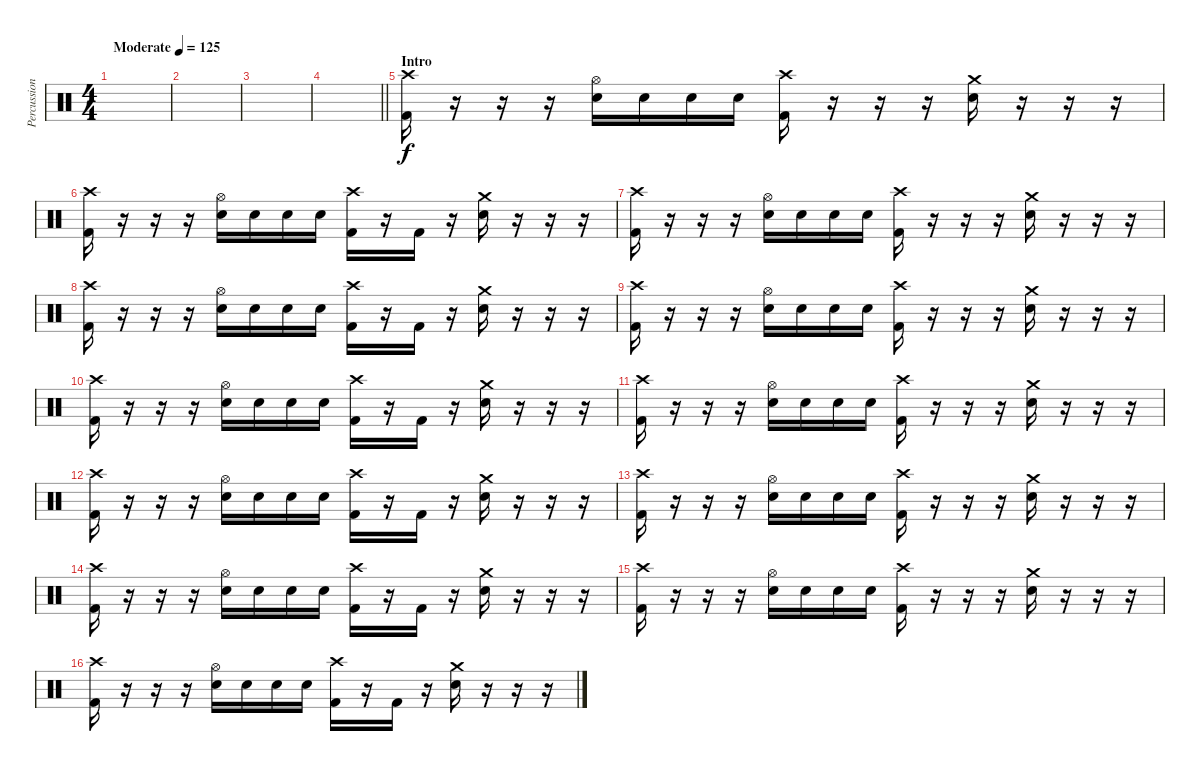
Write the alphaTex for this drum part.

\track ("Percussion" "Percussion") {instrument percussion}
\staff {score}
\articulation defaults
\ts (4 4)
\tempo (125 "Moderate")
\clef neutral
\ks c
|
|
|
\barLineRight lightlight
|
\section ("" "Intro")
("Crash high (hit)" "Kick (hit) 2").16 r.16 r.16 r.16 ("Hi-Hat (open)" "Snare (hit) 2").16 "Snare (hit) 2".16 "Snare (hit) 2".16 "Snare (hit) 2".16 ("Crash high (hit)" "Kick (hit) 2").16 r.16 r.16 r.16 ("Crash medium (hit)" "Snare (hit) 2").16 r.16 r.16 r.16 |
("Crash high (hit)" "Kick (hit) 2").16 r.16 r.16 r.16 ("Hi-Hat (open)" "Snare (hit) 2").16 "Snare (hit) 2".16 "Snare (hit) 2".16 "Snare (hit) 2".16 ("Crash high (hit)" "Kick (hit) 2").16 r.16 "Kick (hit) 2".16 r.16 ("Crash medium (hit)" "Snare (hit) 2").16 r.16 r.16 r.16 |
("Crash high (hit)" "Kick (hit) 2").16 r.16 r.16 r.16 ("Hi-Hat (open)" "Snare (hit) 2").16 "Snare (hit) 2".16 "Snare (hit) 2".16 "Snare (hit) 2".16 ("Crash high (hit)" "Kick (hit) 2").16 r.16 r.16 r.16 ("Crash medium (hit)" "Snare (hit) 2").16 r.16 r.16 r.16 |
("Crash high (hit)" "Kick (hit) 2").16 r.16 r.16 r.16 ("Hi-Hat (open)" "Snare (hit) 2").16 "Snare (hit) 2".16 "Snare (hit) 2".16 "Snare (hit) 2".16 ("Crash high (hit)" "Kick (hit) 2").16 r.16 "Kick (hit) 2".16 r.16 ("Crash medium (hit)" "Snare (hit) 2").16 r.16 r.16 r.16 |
("Crash high (hit)" "Kick (hit) 2").16 r.16 r.16 r.16 ("Hi-Hat (open)" "Snare (hit) 2").16 "Snare (hit) 2".16 "Snare (hit) 2".16 "Snare (hit) 2".16 ("Crash high (hit)" "Kick (hit) 2").16 r.16 r.16 r.16 ("Crash medium (hit)" "Snare (hit) 2").16 r.16 r.16 r.16 |
("Crash high (hit)" "Kick (hit) 2").16 r.16 r.16 r.16 ("Hi-Hat (open)" "Snare (hit) 2").16 "Snare (hit) 2".16 "Snare (hit) 2".16 "Snare (hit) 2".16 ("Crash high (hit)" "Kick (hit) 2").16 r.16 "Kick (hit) 2".16 r.16 ("Crash medium (hit)" "Snare (hit) 2").16 r.16 r.16 r.16 |
("Crash high (hit)" "Kick (hit) 2").16 r.16 r.16 r.16 ("Hi-Hat (open)" "Snare (hit) 2").16 "Snare (hit) 2".16 "Snare (hit) 2".16 "Snare (hit) 2".16 ("Crash high (hit)" "Kick (hit) 2").16 r.16 r.16 r.16 ("Crash medium (hit)" "Snare (hit) 2").16 r.16 r.16 r.16 |
("Crash high (hit)" "Kick (hit) 2").16 r.16 r.16 r.16 ("Hi-Hat (open)" "Snare (hit) 2").16 "Snare (hit) 2".16 "Snare (hit) 2".16 "Snare (hit) 2".16 ("Crash high (hit)" "Kick (hit) 2").16 r.16 "Kick (hit) 2".16 r.16 ("Crash medium (hit)" "Snare (hit) 2").16 r.16 r.16 r.16 |
("Crash high (hit)" "Kick (hit) 2").16 r.16 r.16 r.16 ("Hi-Hat (open)" "Snare (hit) 2").16 "Snare (hit) 2".16 "Snare (hit) 2".16 "Snare (hit) 2".16 ("Crash high (hit)" "Kick (hit) 2").16 r.16 r.16 r.16 ("Crash medium (hit)" "Snare (hit) 2").16 r.16 r.16 r.16 |
("Crash high (hit)" "Kick (hit) 2").16 r.16 r.16 r.16 ("Hi-Hat (open)" "Snare (hit) 2").16 "Snare (hit) 2".16 "Snare (hit) 2".16 "Snare (hit) 2".16 ("Crash high (hit)" "Kick (hit) 2").16 r.16 "Kick (hit) 2".16 r.16 ("Crash medium (hit)" "Snare (hit) 2").16 r.16 r.16 r.16 |
("Crash high (hit)" "Kick (hit) 2").16 r.16 r.16 r.16 ("Hi-Hat (open)" "Snare (hit) 2").16 "Snare (hit) 2".16 "Snare (hit) 2".16 "Snare (hit) 2".16 ("Crash high (hit)" "Kick (hit) 2").16 r.16 r.16 r.16 ("Crash medium (hit)" "Snare (hit) 2").16 r.16 r.16 r.16 |
("Crash high (hit)" "Kick (hit) 2").16 r.16 r.16 r.16 ("Hi-Hat (open)" "Snare (hit) 2").16 "Snare (hit) 2".16 "Snare (hit) 2".16 "Snare (hit) 2".16 ("Crash high (hit)" "Kick (hit) 2").16 r.16 "Kick (hit) 2".16 r.16 ("Crash medium (hit)" "Snare (hit) 2").16 r.16 r.16 r.16
